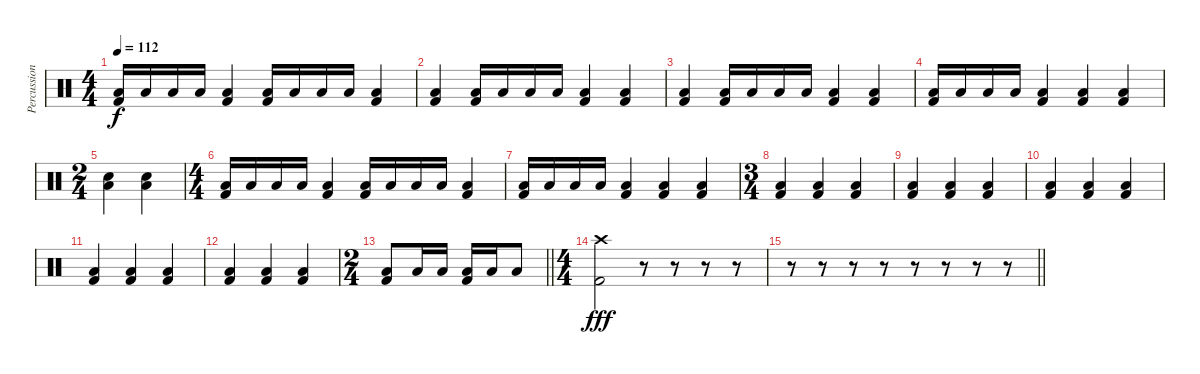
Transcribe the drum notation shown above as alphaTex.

\track ("Percussion" "Percussion") {instrument percussion}
\staff {score}
\articulation defaults
\ts (4 4)
\tempo 112
\clef neutral
\ks c
("Low Floor Tom (hit)" "Kick (hit) 2").16{dy f} "Low Floor Tom (hit)".16 "Low Floor Tom (hit)".16 "Low Floor Tom (hit)".16 ("Low Floor Tom (hit)" "Kick (hit) 2").4 ("Low Floor Tom (hit)" "Kick (hit) 2").16 "Low Floor Tom (hit)".16 "Low Floor Tom (hit)".16 "Low Floor Tom (hit)".16 ("Low Floor Tom (hit)" "Kick (hit) 2").4 |
("Low Floor Tom (hit)" "Kick (hit) 2").4 ("Low Floor Tom (hit)" "Kick (hit) 2").16 "Low Floor Tom (hit)".16 "Low Floor Tom (hit)".16 "Low Floor Tom (hit)".16 ("Low Floor Tom (hit)" "Kick (hit) 2").4 ("Low Floor Tom (hit)" "Kick (hit) 2").4 |
("Low Floor Tom (hit)" "Kick (hit) 2").4 ("Low Floor Tom (hit)" "Kick (hit) 2").16 "Low Floor Tom (hit)".16 "Low Floor Tom (hit)".16 "Low Floor Tom (hit)".16 ("Low Floor Tom (hit)" "Kick (hit) 2").4 ("Low Floor Tom (hit)" "Kick (hit) 2").4 |
("Low Floor Tom (hit)" "Kick (hit) 2").16 "Low Floor Tom (hit)".16 "Low Floor Tom (hit)".16 "Low Floor Tom (hit)".16 ("Low Floor Tom (hit)" "Kick (hit) 2").4 ("Low Floor Tom (hit)" "Kick (hit) 2").4 ("Low Floor Tom (hit)" "Kick (hit) 2").4 |
\ts (2 4)
("Low Floor Tom (hit)" "Snare (hit)").4 ("Low Floor Tom (hit)" "Snare (hit)").4 |
\ts (4 4)
("Low Floor Tom (hit)" "Kick (hit) 2").16 "Low Floor Tom (hit)".16 "Low Floor Tom (hit)".16 "Low Floor Tom (hit)".16 ("Low Floor Tom (hit)" "Kick (hit) 2").4 ("Low Floor Tom (hit)" "Kick (hit) 2").16 "Low Floor Tom (hit)".16 "Low Floor Tom (hit)".16 "Low Floor Tom (hit)".16 ("Low Floor Tom (hit)" "Kick (hit) 2").4 |
("Low Floor Tom (hit)" "Kick (hit) 2").16 "Low Floor Tom (hit)".16 "Low Floor Tom (hit)".16 "Low Floor Tom (hit)".16 ("Low Floor Tom (hit)" "Kick (hit) 2").4 ("Low Floor Tom (hit)" "Kick (hit) 2").4 ("Low Floor Tom (hit)" "Kick (hit) 2").4 |
\ts (3 4)
("Low Floor Tom (hit)" "Kick (hit) 2").4 ("Low Floor Tom (hit)" "Kick (hit) 2").4 ("Low Floor Tom (hit)" "Kick (hit) 2").4 |
("Low Floor Tom (hit)" "Kick (hit) 2").4 ("Low Floor Tom (hit)" "Kick (hit) 2").4 ("Low Floor Tom (hit)" "Kick (hit) 2").4 |
("Low Floor Tom (hit)" "Kick (hit) 2").4 ("Low Floor Tom (hit)" "Kick (hit) 2").4 ("Low Floor Tom (hit)" "Kick (hit) 2").4 |
("Low Floor Tom (hit)" "Kick (hit) 2").4 ("Low Floor Tom (hit)" "Kick (hit) 2").4 ("Low Floor Tom (hit)" "Kick (hit) 2").4 |
("Low Floor Tom (hit)" "Kick (hit) 2").4 ("Low Floor Tom (hit)" "Kick (hit) 2").4 ("Low Floor Tom (hit)" "Kick (hit) 2").4 |
\ts (2 4)
\barLineRight lightlight
("Low Floor Tom (hit)" "Kick (hit) 2").8 "Low Floor Tom (hit)".16 "Low Floor Tom (hit)".16 ("Low Floor Tom (hit)" "Kick (hit) 2").16 "Low Floor Tom (hit)".16 "Low Floor Tom (hit)".8 |
\ts (4 4)
("Crash high (hit)" "Kick (hit) 2").2{dy fff} r.8 r.8 r.8 r.8 |
\barLineRight lightlight
r.8 r.8 r.8 r.8 r.8 r.8 r.8 r.8
